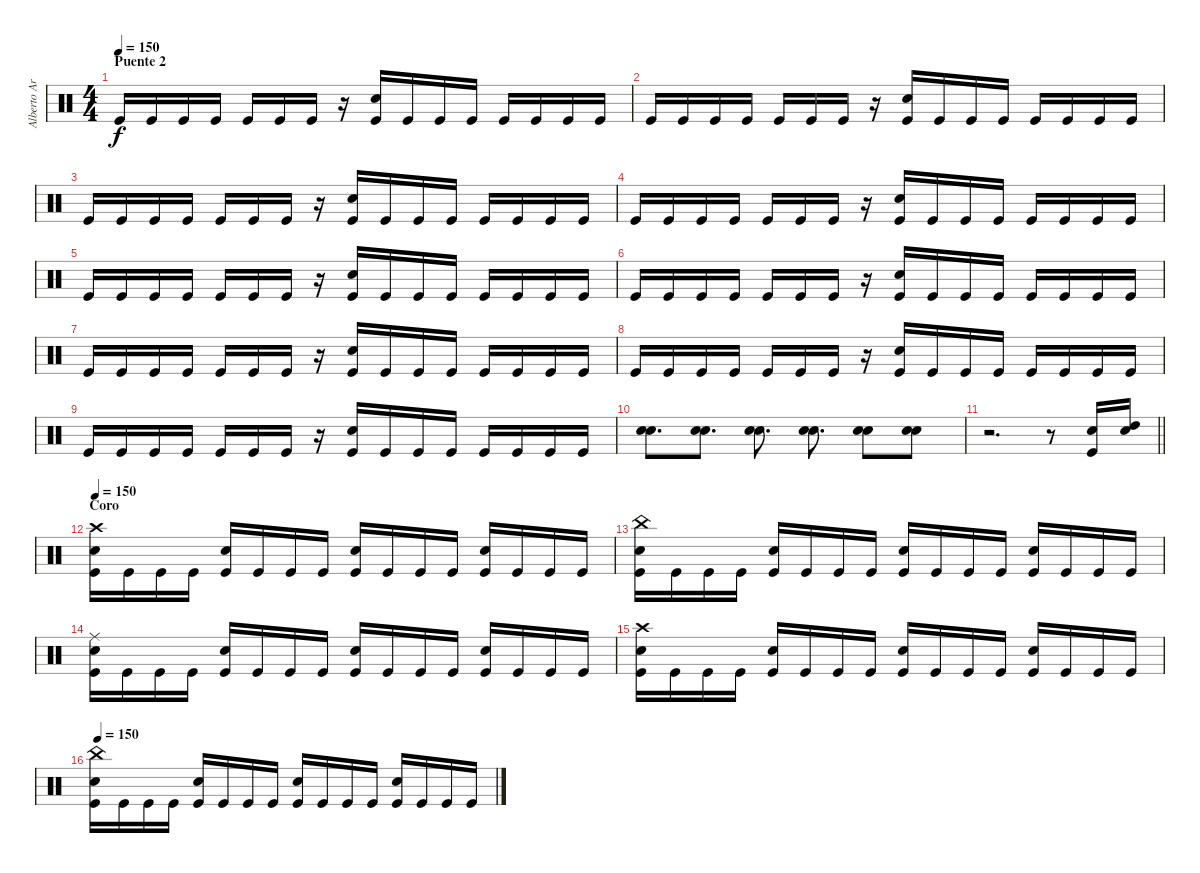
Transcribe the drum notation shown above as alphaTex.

\track ("Alberto Ardines" "Alberto Ar") {instrument percussion}
\staff {score}
\articulation defaults
\ts (4 4)
\section ("" "Puente 2")
\tempo 150
\clef neutral
\ks c "Kick (hit)".16{dy f} "Kick (hit)".16 "Kick (hit)".16 "Kick (hit)".16 "Kick (hit)".16 "Kick (hit)".16 "Kick (hit)".16
r.16 ("Kick (hit)" "Snare (hit) 2").16 "Kick (hit)".16 "Kick (hit)".16 "Kick (hit)".16 "Kick (hit)".16 "Kick (hit)".16 "Kick (hit)".16 "Kick (hit)".16 |
"Kick (hit)".16 "Kick (hit)".16 "Kick (hit)".16 "Kick (hit)".16 "Kick (hit)".16 "Kick (hit)".16 "Kick (hit)".16 r.16 ("Kick (hit)" "Snare (hit) 2").16 "Kick (hit)".16 "Kick (hit)".16 "Kick (hit)".16 "Kick (hit)".16 "Kick (hit)".16 "Kick (hit)".16 "Kick (hit)".16 |
"Kick (hit)".16 "Kick (hit)".16 "Kick (hit)".16 "Kick (hit)".16 "Kick (hit)".16 "Kick (hit)".16 "Kick (hit)".16 r.16 ("Kick (hit)" "Snare (hit) 2").16 "Kick (hit)".16 "Kick (hit)".16 "Kick (hit)".16 "Kick (hit)".16 "Kick (hit)".16 "Kick (hit)".16 "Kick (hit)".16 |
"Kick (hit)".16 "Kick (hit)".16 "Kick (hit)".16 "Kick (hit)".16 "Kick (hit)".16 "Kick (hit)".16 "Kick (hit)".16 r.16 ("Kick (hit)" "Snare (hit) 2").16 "Kick (hit)".16 "Kick (hit)".16 "Kick (hit)".16 "Kick (hit)".16 "Kick (hit)".16 "Kick (hit)".16 "Kick (hit)".16 |
"Kick (hit)".16 "Kick (hit)".16 "Kick (hit)".16 "Kick (hit)".16 "Kick (hit)".16 "Kick (hit)".16 "Kick (hit)".16 r.16 ("Kick (hit)" "Snare (hit) 2").16 "Kick (hit)".16 "Kick (hit)".16 "Kick (hit)".16 "Kick (hit)".16 "Kick (hit)".16 "Kick (hit)".16 "Kick (hit)".16 |
"Kick (hit)".16 "Kick (hit)".16 "Kick (hit)".16 "Kick (hit)".16 "Kick (hit)".16 "Kick (hit)".16 "Kick (hit)".16 r.16 ("Kick (hit)" "Snare (hit) 2").16 "Kick (hit)".16 "Kick (hit)".16 "Kick (hit)".16 "Kick (hit)".16 "Kick (hit)".16 "Kick (hit)".16 "Kick (hit)".16 |
"Kick (hit)".16 "Kick (hit)".16 "Kick (hit)".16 "Kick (hit)".16 "Kick (hit)".16 "Kick (hit)".16 "Kick (hit)".16 r.16 ("Kick (hit)" "Snare (hit) 2").16 "Kick (hit)".16 "Kick (hit)".16 "Kick (hit)".16 "Kick (hit)".16 "Kick (hit)".16 "Kick (hit)".16 "Kick (hit)".16 |
"Kick (hit)".16 "Kick (hit)".16 "Kick (hit)".16 "Kick (hit)".16 "Kick (hit)".16 "Kick (hit)".16 "Kick (hit)".16 r.16 ("Kick (hit)" "Snare (hit) 2").16 "Kick (hit)".16 "Kick (hit)".16 "Kick (hit)".16 "Kick (hit)".16 "Kick (hit)".16 "Kick (hit)".16 "Kick (hit)".16 |
"Kick (hit)".16 "Kick (hit)".16 "Kick (hit)".16 "Kick (hit)".16 "Kick (hit)".16 "Kick (hit)".16 "Kick (hit)".16 r.16 ("Kick (hit)" "Snare (hit) 2").16 "Kick (hit)".16 "Kick (hit)".16 "Kick (hit)".16 "Kick (hit)".16 "Kick (hit)".16 "Kick (hit)".16 "Kick (hit)".16 |
("Snare (hit) 2" "Snare (hit) 2").8{d} ("Snare (hit) 2" "Snare (hit) 2").8{d} ("Snare (hit) 2" "Snare (hit) 2").8{d} ("Snare (hit) 2" "Snare (hit) 2").8{d} ("Snare (hit) 2" "Snare (hit) 2").8 ("Snare (hit) 2" "Snare (hit) 2").8 |
\barLineRight lightlight
r.2{d} r.8 ("Snare (hit) 2" "Kick (hit)").16 ("High Tom (hit)" "Snare (hit) 2").16 |
\section ("" "Coro")
\tempo 150
("Crash high (hit)" "Kick (hit)" "Snare (hit) 2").16 "Kick (hit)".16 "Kick (hit)".16 "Kick (hit)".16 ("Kick (hit)" "Snare (hit) 2").16 "Kick (hit)".16 "Kick (hit)".16 "Kick (hit)".16 ("Kick (hit)" "Snare (hit) 2").16 "Kick (hit)".16 "Kick (hit)".16 "Kick (hit)".16 ("Kick (hit)" "Snare (hit) 2").16 "Kick (hit)".16 "Kick (hit)".16 "Kick (hit)".16 |
("China (hit)" "Kick (hit)" "Snare (hit) 2").16 "Kick (hit)".16 "Kick (hit)".16 "Kick (hit)".16 ("Kick (hit)" "Snare (hit) 2").16 "Kick (hit)".16 "Kick (hit)".16 "Kick (hit)".16 ("Kick (hit)" "Snare (hit) 2").16 "Kick (hit)".16 "Kick (hit)".16 "Kick (hit)".16 ("Kick (hit)" "Snare (hit) 2").16 "Kick (hit)".16 "Kick (hit)".16 "Kick (hit)".16 |
("Ride (middle)" "Kick (hit)" "Snare (hit) 2").16 "Kick (hit)".16 "Kick (hit)".16 "Kick (hit)".16 ("Kick (hit)" "Snare (hit) 2").16 "Kick (hit)".16 "Kick (hit)".16 "Kick (hit)".16 ("Kick (hit)" "Snare (hit) 2").16 "Kick (hit)".16 "Kick (hit)".16 "Kick (hit)".16 ("Kick (hit)" "Snare (hit) 2").16 "Kick (hit)".16 "Kick (hit)".16 "Kick (hit)".16 |
("Crash high (hit)" "Kick (hit)" "Snare (hit) 2").16 "Kick (hit)".16 "Kick (hit)".16 "Kick (hit)".16 ("Kick (hit)" "Snare (hit) 2").16 "Kick (hit)".16 "Kick (hit)".16 "Kick (hit)".16 ("Kick (hit)" "Snare (hit) 2").16 "Kick (hit)".16 "Kick (hit)".16 "Kick (hit)".16 ("Kick (hit)" "Snare (hit) 2").16 "Kick (hit)".16 "Kick (hit)".16 "Kick (hit)".16 |
\tempo 150
("China (hit)" "Kick (hit)" "Snare (hit) 2").16 "Kick (hit)".16 "Kick (hit)".16 "Kick (hit)".16 ("Kick (hit)" "Snare (hit) 2").16 "Kick (hit)".16 "Kick (hit)".16 "Kick (hit)".16 ("Kick (hit)" "Snare (hit) 2").16 "Kick (hit)".16 "Kick (hit)".16 "Kick (hit)".16 ("Kick (hit)" "Snare (hit) 2").16 "Kick (hit)".16 "Kick (hit)".16 "Kick (hit)".16
